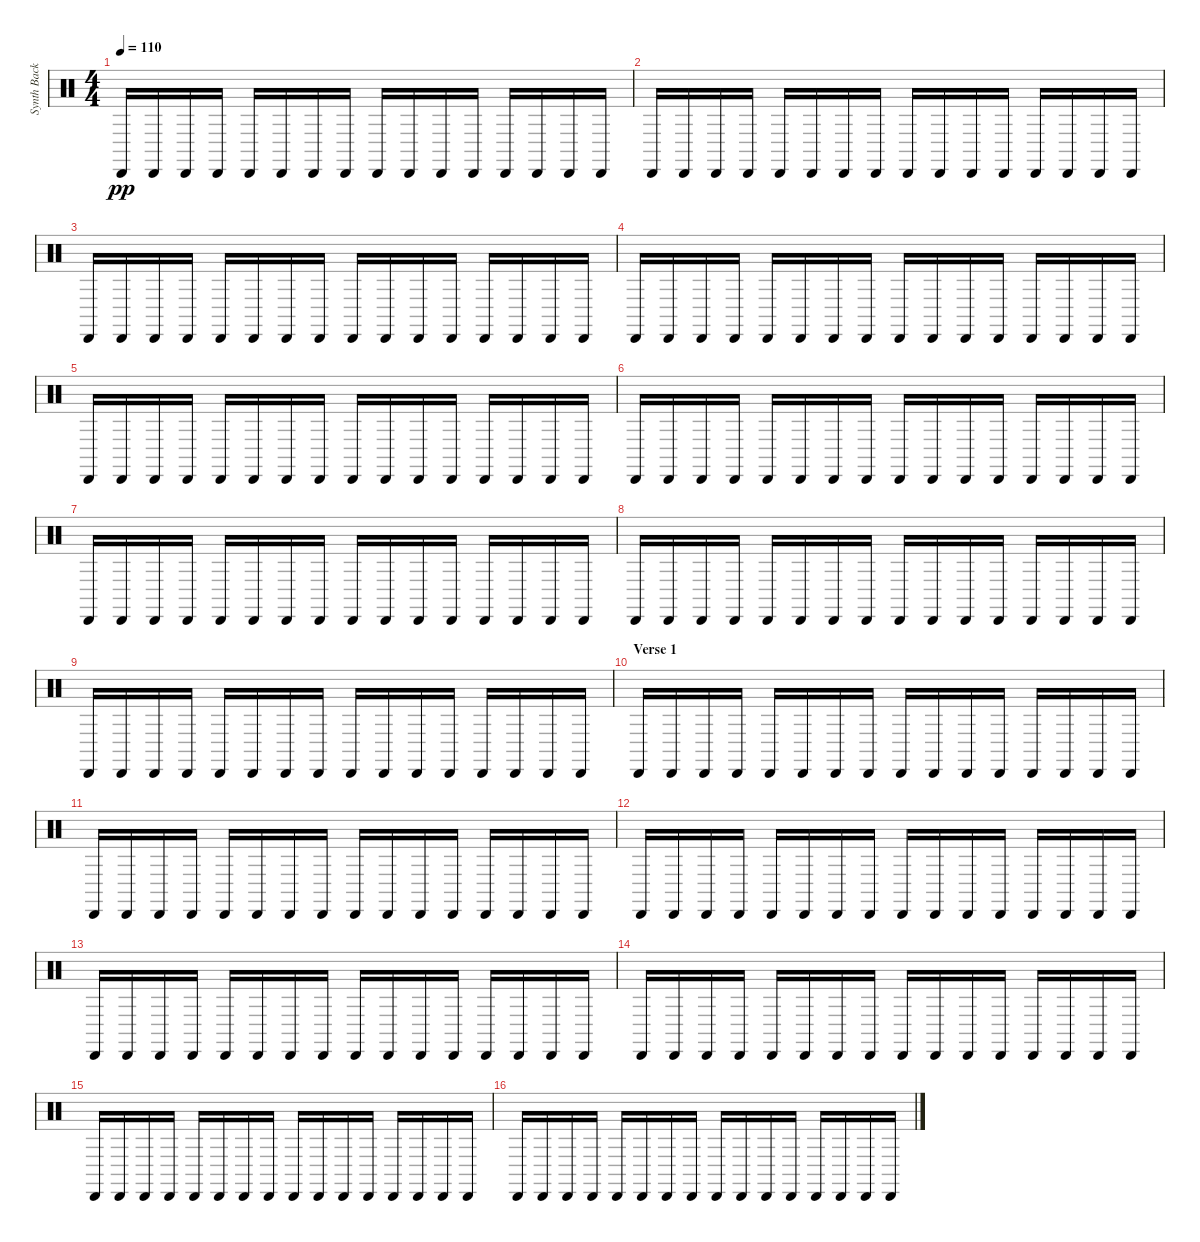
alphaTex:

\track ("Synth Background Rhythm" "Synth Back") {instrument percussion}
\staff {score}
\articulation defaults
\ts (4 4)
\tempo 110
\clef neutral
\ks c "Cabasa (hit)".16{dy pp} "Cabasa (hit)".16 "Cabasa (hit)".16 "Cabasa (hit)".16 "Cabasa (hit)".16 "Cabasa (hit)".16 "Cabasa (hit)".16 "Cabasa (hit)".16 "Cabasa (hit)".16 "Cabasa (hit)".16 "Cabasa (hit)".16 "Cabasa (hit)".16 "Cabasa (hit)".16 "Cabasa (hit)".16 "Cabasa (hit)".16 "Cabasa (hit)".16
|
"Cabasa (hit)".16 "Cabasa (hit)".16 "Cabasa (hit)".16 "Cabasa (hit)".16 "Cabasa (hit)".16 "Cabasa (hit)".16 "Cabasa (hit)".16 "Cabasa (hit)".16 "Cabasa (hit)".16 "Cabasa (hit)".16 "Cabasa (hit)".16 "Cabasa (hit)".16 "Cabasa (hit)".16 "Cabasa (hit)".16 "Cabasa (hit)".16 "Cabasa (hit)".16 |
"Cabasa (hit)".16 "Cabasa (hit)".16 "Cabasa (hit)".16 "Cabasa (hit)".16 "Cabasa (hit)".16 "Cabasa (hit)".16 "Cabasa (hit)".16 "Cabasa (hit)".16 "Cabasa (hit)".16 "Cabasa (hit)".16 "Cabasa (hit)".16 "Cabasa (hit)".16 "Cabasa (hit)".16 "Cabasa (hit)".16 "Cabasa (hit)".16 "Cabasa (hit)".16 |
"Cabasa (hit)".16 "Cabasa (hit)".16 "Cabasa (hit)".16 "Cabasa (hit)".16 "Cabasa (hit)".16 "Cabasa (hit)".16 "Cabasa (hit)".16 "Cabasa (hit)".16 "Cabasa (hit)".16 "Cabasa (hit)".16 "Cabasa (hit)".16 "Cabasa (hit)".16 "Cabasa (hit)".16 "Cabasa (hit)".16 "Cabasa (hit)".16 "Cabasa (hit)".16 |
"Cabasa (hit)".16 "Cabasa (hit)".16 "Cabasa (hit)".16 "Cabasa (hit)".16 "Cabasa (hit)".16 "Cabasa (hit)".16 "Cabasa (hit)".16 "Cabasa (hit)".16 "Cabasa (hit)".16 "Cabasa (hit)".16 "Cabasa (hit)".16 "Cabasa (hit)".16 "Cabasa (hit)".16 "Cabasa (hit)".16 "Cabasa (hit)".16 "Cabasa (hit)".16 |
"Cabasa (hit)".16 "Cabasa (hit)".16 "Cabasa (hit)".16 "Cabasa (hit)".16 "Cabasa (hit)".16 "Cabasa (hit)".16 "Cabasa (hit)".16 "Cabasa (hit)".16 "Cabasa (hit)".16 "Cabasa (hit)".16 "Cabasa (hit)".16 "Cabasa (hit)".16 "Cabasa (hit)".16 "Cabasa (hit)".16 "Cabasa (hit)".16 "Cabasa (hit)".16 |
"Cabasa (hit)".16 "Cabasa (hit)".16 "Cabasa (hit)".16 "Cabasa (hit)".16 "Cabasa (hit)".16 "Cabasa (hit)".16 "Cabasa (hit)".16 "Cabasa (hit)".16 "Cabasa (hit)".16 "Cabasa (hit)".16 "Cabasa (hit)".16 "Cabasa (hit)".16 "Cabasa (hit)".16 "Cabasa (hit)".16 "Cabasa (hit)".16 "Cabasa (hit)".16 |
"Cabasa (hit)".16 "Cabasa (hit)".16 "Cabasa (hit)".16 "Cabasa (hit)".16 "Cabasa (hit)".16 "Cabasa (hit)".16 "Cabasa (hit)".16 "Cabasa (hit)".16 "Cabasa (hit)".16 "Cabasa (hit)".16 "Cabasa (hit)".16 "Cabasa (hit)".16 "Cabasa (hit)".16 "Cabasa (hit)".16 "Cabasa (hit)".16 "Cabasa (hit)".16 |
"Cabasa (hit)".16 "Cabasa (hit)".16 "Cabasa (hit)".16 "Cabasa (hit)".16 "Cabasa (hit)".16 "Cabasa (hit)".16 "Cabasa (hit)".16 "Cabasa (hit)".16 "Cabasa (hit)".16 "Cabasa (hit)".16 "Cabasa (hit)".16 "Cabasa (hit)".16 "Cabasa (hit)".16 "Cabasa (hit)".16 "Cabasa (hit)".16 "Cabasa (hit)".16 |
\section ("" "Verse 1")
"Cabasa (hit)".16 "Cabasa (hit)".16 "Cabasa (hit)".16 "Cabasa (hit)".16 "Cabasa (hit)".16 "Cabasa (hit)".16 "Cabasa (hit)".16 "Cabasa (hit)".16 "Cabasa (hit)".16 "Cabasa (hit)".16 "Cabasa (hit)".16 "Cabasa (hit)".16 "Cabasa (hit)".16 "Cabasa (hit)".16 "Cabasa (hit)".16 "Cabasa (hit)".16 |
"Cabasa (hit)".16 "Cabasa (hit)".16 "Cabasa (hit)".16 "Cabasa (hit)".16 "Cabasa (hit)".16 "Cabasa (hit)".16 "Cabasa (hit)".16 "Cabasa (hit)".16 "Cabasa (hit)".16 "Cabasa (hit)".16 "Cabasa (hit)".16 "Cabasa (hit)".16 "Cabasa (hit)".16 "Cabasa (hit)".16 "Cabasa (hit)".16 "Cabasa (hit)".16 |
"Cabasa (hit)".16 "Cabasa (hit)".16 "Cabasa (hit)".16 "Cabasa (hit)".16 "Cabasa (hit)".16 "Cabasa (hit)".16 "Cabasa (hit)".16 "Cabasa (hit)".16 "Cabasa (hit)".16 "Cabasa (hit)".16 "Cabasa (hit)".16 "Cabasa (hit)".16 "Cabasa (hit)".16 "Cabasa (hit)".16 "Cabasa (hit)".16 "Cabasa (hit)".16 |
"Cabasa (hit)".16 "Cabasa (hit)".16 "Cabasa (hit)".16 "Cabasa (hit)".16 "Cabasa (hit)".16 "Cabasa (hit)".16 "Cabasa (hit)".16 "Cabasa (hit)".16 "Cabasa (hit)".16 "Cabasa (hit)".16 "Cabasa (hit)".16 "Cabasa (hit)".16 "Cabasa (hit)".16 "Cabasa (hit)".16 "Cabasa (hit)".16 "Cabasa (hit)".16 |
"Cabasa (hit)".16 "Cabasa (hit)".16 "Cabasa (hit)".16 "Cabasa (hit)".16 "Cabasa (hit)".16 "Cabasa (hit)".16 "Cabasa (hit)".16 "Cabasa (hit)".16 "Cabasa (hit)".16 "Cabasa (hit)".16 "Cabasa (hit)".16 "Cabasa (hit)".16 "Cabasa (hit)".16 "Cabasa (hit)".16 "Cabasa (hit)".16 "Cabasa (hit)".16 |
"Cabasa (hit)".16 "Cabasa (hit)".16 "Cabasa (hit)".16 "Cabasa (hit)".16 "Cabasa (hit)".16 "Cabasa (hit)".16 "Cabasa (hit)".16 "Cabasa (hit)".16 "Cabasa (hit)".16 "Cabasa (hit)".16 "Cabasa (hit)".16 "Cabasa (hit)".16 "Cabasa (hit)".16 "Cabasa (hit)".16 "Cabasa (hit)".16 "Cabasa (hit)".16 |
"Cabasa (hit)".16 "Cabasa (hit)".16 "Cabasa (hit)".16 "Cabasa (hit)".16 "Cabasa (hit)".16 "Cabasa (hit)".16 "Cabasa (hit)".16 "Cabasa (hit)".16 "Cabasa (hit)".16 "Cabasa (hit)".16 "Cabasa (hit)".16 "Cabasa (hit)".16 "Cabasa (hit)".16 "Cabasa (hit)".16 "Cabasa (hit)".16 "Cabasa (hit)".16
